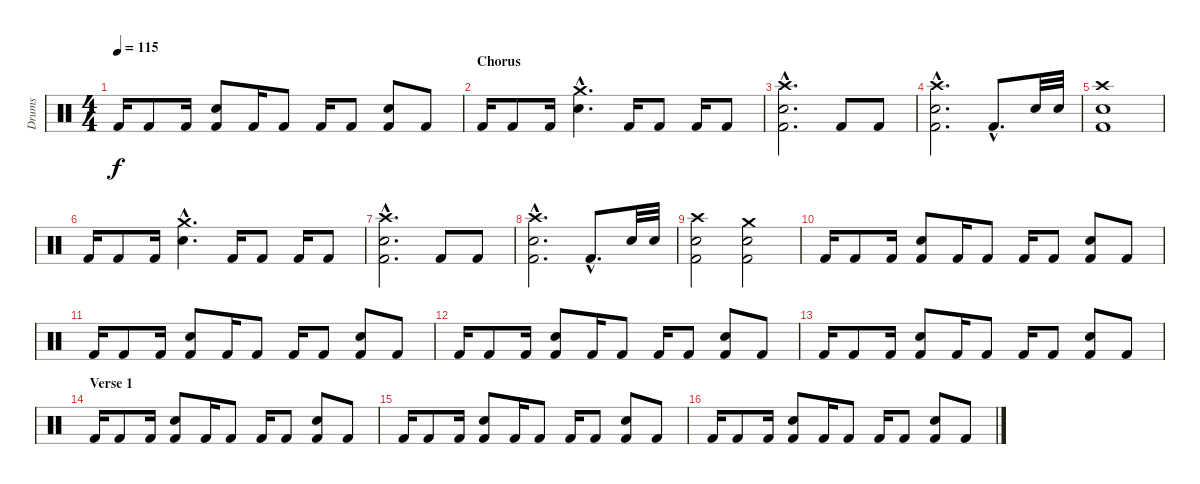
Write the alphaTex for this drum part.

\track ("Drums" "Drums") {instrument percussion}
\staff {score}
\articulation defaults
\ts (4 4)
\tempo 115
\clef neutral
\ks c "Kick (hit) 2".16{dy f} "Kick (hit) 2".8 "Kick (hit) 2".16
("Snare (hit) 2" "Kick (hit) 2").8 "Kick (hit) 2".16 "Kick (hit) 2".8 "Kick (hit) 2".16 "Kick (hit) 2".8 ("Snare (hit) 2" "Kick (hit) 2").8 "Kick (hit) 2".8 |
\section ("" "Chorus")
"Kick (hit) 2".16 "Kick (hit) 2".8 "Kick (hit) 2".16 ("Crash medium (hit)"{hac} "Snare (hit) 2"{hac}).4{d} "Kick (hit) 2".16 "Kick (hit) 2".8 "Kick (hit) 2".16 "Kick (hit) 2".8 |
("Crash high (hit)"{hac} "Snare (hit) 2"{hac} "Kick (hit) 2"{hac}).2{d} "Kick (hit) 2".8 "Kick (hit) 2".8 |
("Crash high (hit)"{hac} "Snare (hit) 2"{hac} "Kick (hit) 2"{hac}).2{d} "Kick (hit) 2"{hac}.8{d} "Snare (hit) 2".32 "Snare (hit) 2".32 |
("Crash high (hit)" "Kick (hit) 2" "Snare (hit) 2").1 |
"Kick (hit) 2".16 "Kick (hit) 2".8 "Kick (hit) 2".16 ("Crash medium (hit)"{hac} "Snare (hit) 2"{hac}).4{d} "Kick (hit) 2".16 "Kick (hit) 2".8 "Kick (hit) 2".16 "Kick (hit) 2".8 |
("Crash high (hit)"{hac} "Snare (hit) 2"{hac} "Kick (hit) 2"{hac}).2{d} "Kick (hit) 2".8 "Kick (hit) 2".8 |
("Crash high (hit)"{hac} "Snare (hit) 2"{hac} "Kick (hit) 2"{hac}).2{d} "Kick (hit) 2"{hac}.8{d} "Snare (hit) 2".32 "Snare (hit) 2".32 |
("Crash high (hit)" "Kick (hit) 2" "Snare (hit) 2").2 ("Crash medium (hit)" "Snare (hit) 2" "Kick (hit) 2").2 |
"Kick (hit) 2".16 "Kick (hit) 2".8 "Kick (hit) 2".16 ("Snare (hit) 2" "Kick (hit) 2").8 "Kick (hit) 2".16 "Kick (hit) 2".8 "Kick (hit) 2".16 "Kick (hit) 2".8 ("Snare (hit) 2" "Kick (hit) 2").8 "Kick (hit) 2".8 |
"Kick (hit) 2".16 "Kick (hit) 2".8 "Kick (hit) 2".16 ("Snare (hit) 2" "Kick (hit) 2").8 "Kick (hit) 2".16 "Kick (hit) 2".8 "Kick (hit) 2".16 "Kick (hit) 2".8 ("Snare (hit) 2" "Kick (hit) 2").8 "Kick (hit) 2".8 |
"Kick (hit) 2".16 "Kick (hit) 2".8 "Kick (hit) 2".16 ("Snare (hit) 2" "Kick (hit) 2").8 "Kick (hit) 2".16 "Kick (hit) 2".8 "Kick (hit) 2".16 "Kick (hit) 2".8 ("Snare (hit) 2" "Kick (hit) 2").8 "Kick (hit) 2".8 |
"Kick (hit) 2".16 "Kick (hit) 2".8 "Kick (hit) 2".16 ("Snare (hit) 2" "Kick (hit) 2").8 "Kick (hit) 2".16 "Kick (hit) 2".8 "Kick (hit) 2".16 "Kick (hit) 2".8 ("Snare (hit) 2" "Kick (hit) 2").8 "Kick (hit) 2".8 |
\section ("" "Verse 1")
"Kick (hit) 2".16 "Kick (hit) 2".8 "Kick (hit) 2".16 ("Snare (hit) 2" "Kick (hit) 2").8 "Kick (hit) 2".16 "Kick (hit) 2".8 "Kick (hit) 2".16 "Kick (hit) 2".8 ("Snare (hit) 2" "Kick (hit) 2").8 "Kick (hit) 2".8 |
"Kick (hit) 2".16 "Kick (hit) 2".8 "Kick (hit) 2".16 ("Snare (hit) 2" "Kick (hit) 2").8 "Kick (hit) 2".16 "Kick (hit) 2".8 "Kick (hit) 2".16 "Kick (hit) 2".8 ("Snare (hit) 2" "Kick (hit) 2").8 "Kick (hit) 2".8 |
"Kick (hit) 2".16 "Kick (hit) 2".8 "Kick (hit) 2".16 ("Snare (hit) 2" "Kick (hit) 2").8 "Kick (hit) 2".16 "Kick (hit) 2".8 "Kick (hit) 2".16 "Kick (hit) 2".8 ("Snare (hit) 2" "Kick (hit) 2").8 "Kick (hit) 2".8
